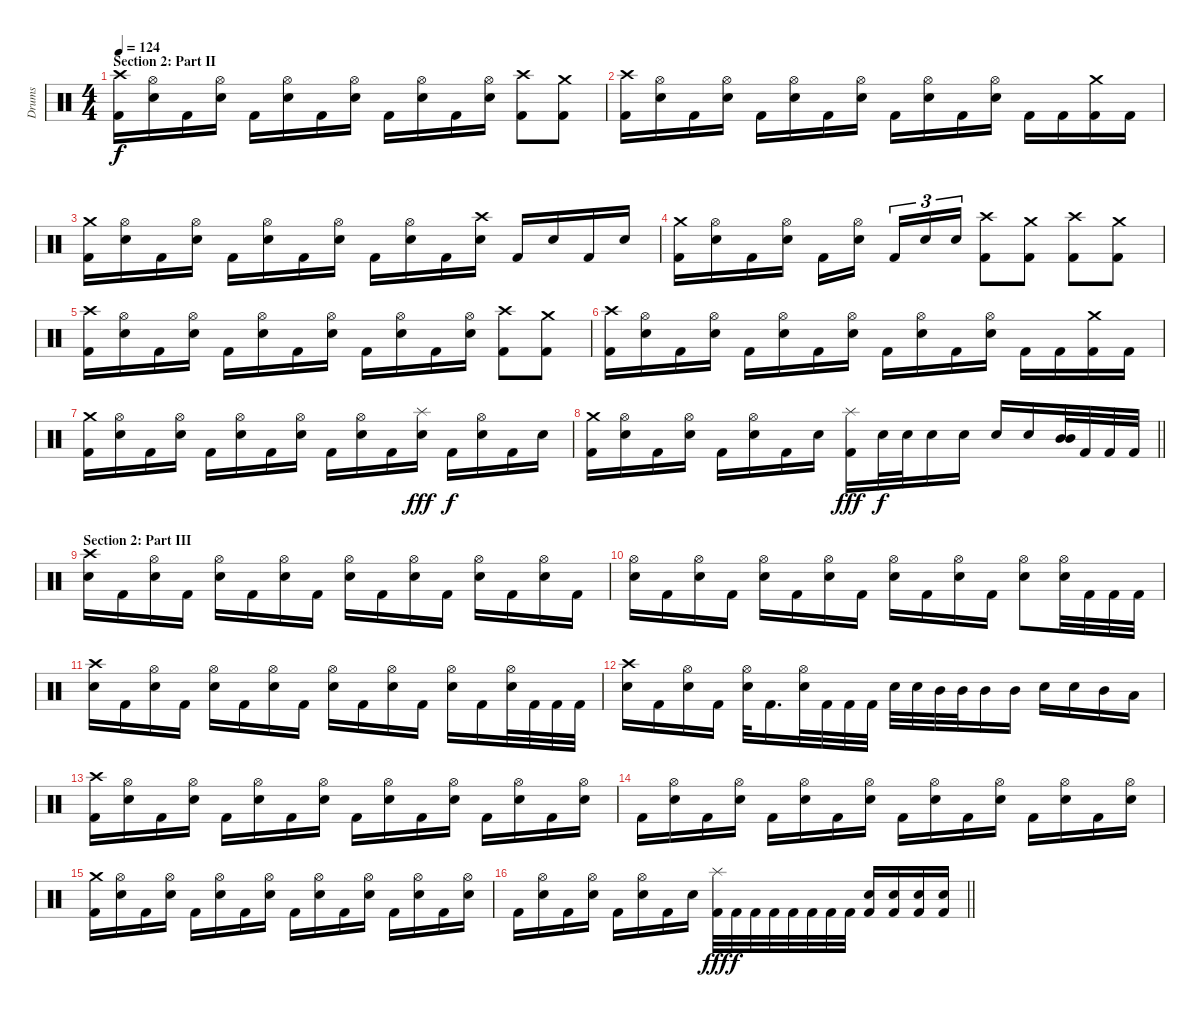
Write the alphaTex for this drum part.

\track ("Drums" "Drums") {instrument percussion}
\staff {score}
\articulation defaults
\ts (4 4)
\section ("" "Section 2: Part II")
\tempo 124
\clef neutral
\ks c
("Crash high (hit)" "Kick (hit) 2").16{dy f} ("Hi-Hat (open)" "Electric Snare (hit)").16 "Kick (hit) 2".16 ("Hi-Hat (open)" "Electric Snare (hit)").16 "Kick (hit) 2".16 ("Hi-Hat (open)" "Electric Snare (hit)").16 "Kick (hit) 2".16 ("Hi-Hat (open)" "Electric Snare (hit)").16 "Kick (hit) 2".16 ("Hi-Hat (open)" "Electric Snare (hit)").16 "Kick (hit) 2".16 ("Hi-Hat (open)" "Electric Snare (hit)").16 ("Crash high (hit)" "Kick (hit) 2").8 ("Crash medium (hit)" "Kick (hit) 2").8 |
("Crash high (hit)" "Kick (hit) 2").16 ("Hi-Hat (open)" "Electric Snare (hit)").16 "Kick (hit) 2".16 ("Hi-Hat (open)" "Electric Snare (hit)").16 "Kick (hit) 2".16 ("Hi-Hat (open)" "Electric Snare (hit)").16 "Kick (hit) 2".16 ("Hi-Hat (open)" "Electric Snare (hit)").16 "Kick (hit) 2".16 ("Hi-Hat (open)" "Electric Snare (hit)").16 "Kick (hit) 2".16 ("Hi-Hat (open)" "Electric Snare (hit)").16 "Kick (hit) 2".16 "Kick (hit) 2".16 ("Crash medium (hit)" "Kick (hit) 2").16 "Kick (hit) 2".16 |
("Crash medium (hit)" "Kick (hit) 2").16 ("Hi-Hat (open)" "Electric Snare (hit)").16 "Kick (hit) 2".16 ("Hi-Hat (open)" "Electric Snare (hit)").16 "Kick (hit) 2".16 ("Hi-Hat (open)" "Electric Snare (hit)").16 "Kick (hit) 2".16 ("Hi-Hat (open)" "Electric Snare (hit)").16 "Kick (hit) 2".16 ("Hi-Hat (open)" "Electric Snare (hit)").16 "Kick (hit) 2".16 ("Crash high (hit)" "Electric Snare (hit)").16 "Kick (hit) 2".16 "Electric Snare (hit)".16 "Kick (hit) 2".16 "Electric Snare (hit)".16 |
("Crash medium (hit)" "Kick (hit) 2").16 ("Hi-Hat (open)" "Electric Snare (hit)").16 "Kick (hit) 2".16 ("Hi-Hat (open)" "Electric Snare (hit)").16 "Kick (hit) 2".16 ("Hi-Hat (open)" "Electric Snare (hit)").16{beam splitsecondary} "Kick (hit) 2".16{tu (3 2)} "Electric Snare (hit)".16{tu (3 2)} "Electric Snare (hit)".16{tu (3 2)} ("Crash high (hit)" "Kick (hit) 2").8 ("Crash medium (hit)" "Kick (hit) 2").8 ("Crash high (hit)" "Kick (hit) 2").8 ("Crash medium (hit)" "Kick (hit) 2").8 |
("Crash high (hit)" "Kick (hit) 2").16 ("Hi-Hat (open)" "Electric Snare (hit)").16 "Kick (hit) 2".16 ("Hi-Hat (open)" "Electric Snare (hit)").16 "Kick (hit) 2".16 ("Hi-Hat (open)" "Electric Snare (hit)").16 "Kick (hit) 2".16 ("Hi-Hat (open)" "Electric Snare (hit)").16 "Kick (hit) 2".16 ("Hi-Hat (open)" "Electric Snare (hit)").16 "Kick (hit) 2".16 ("Hi-Hat (open)" "Electric Snare (hit)").16 ("Crash high (hit)" "Kick (hit) 2").8 ("Crash medium (hit)" "Kick (hit) 2").8 |
("Crash high (hit)" "Kick (hit) 2").16 ("Hi-Hat (open)" "Electric Snare (hit)").16 "Kick (hit) 2".16 ("Hi-Hat (open)" "Electric Snare (hit)").16 "Kick (hit) 2".16 ("Hi-Hat (open)" "Electric Snare (hit)").16 "Kick (hit) 2".16 ("Hi-Hat (open)" "Electric Snare (hit)").16 "Kick (hit) 2".16 ("Hi-Hat (open)" "Electric Snare (hit)").16 "Kick (hit) 2".16 ("Hi-Hat (open)" "Electric Snare (hit)").16 "Kick (hit) 2".16 "Kick (hit) 2".16 ("Crash medium (hit)" "Kick (hit) 2").16 "Kick (hit) 2".16 |
("Crash medium (hit)" "Kick (hit) 2").16 ("Hi-Hat (open)" "Electric Snare (hit)").16 "Kick (hit) 2".16 ("Hi-Hat (open)" "Electric Snare (hit)").16 "Kick (hit) 2".16 ("Hi-Hat (open)" "Electric Snare (hit)").16 "Kick (hit) 2".16 ("Hi-Hat (open)" "Electric Snare (hit)").16 "Kick (hit) 2".16 ("Hi-Hat (open)" "Electric Snare (hit)").16 "Kick (hit) 2".16 ("Splash (hit)" "Electric Snare (hit)").16{dy fff} "Kick (hit) 2".16{dy f} ("Hi-Hat (open)" "Electric Snare (hit)").16 "Kick (hit) 2".16 "Electric Snare (hit)".16 |
\barLineRight lightlight
("Crash medium (hit)" "Kick (hit) 2").16 ("Hi-Hat (open)" "Electric Snare (hit)").16 "Kick (hit) 2".16 ("Hi-Hat (open)" "Electric Snare (hit)").16 "Kick (hit) 2".16 ("Hi-Hat (open)" "Electric Snare (hit)").16 "Kick (hit) 2".16 "Electric Snare (hit)".16 ("Splash (hit)" "Kick (hit) 2").16{dy fff} "Electric Snare (hit)".32{dy f} "Electric Snare (hit)".32 "Electric Snare (hit)".16 "Electric Snare (hit)".16 "Electric Snare (hit)".16 "Electric Snare (hit)".16 ("Mid Tom (hit)" "Mid Tom (hit)").32{bu 60} "Kick (hit) 2".32 "Kick (hit) 2".32 "Kick (hit) 2".32 |
\section ("" "Section 2: Part III")
("Crash high (hit)" "Electric Snare (hit)").16 "Kick (hit) 2".16 ("Hi-Hat (open)" "Electric Snare (hit)").16 "Kick (hit) 2".16 ("Hi-Hat (open)" "Electric Snare (hit)").16 "Kick (hit) 2".16 ("Hi-Hat (open)" "Electric Snare (hit)").16 "Kick (hit) 2".16 ("Hi-Hat (open)" "Electric Snare (hit)").16 "Kick (hit) 2".16 ("Hi-Hat (open)" "Electric Snare (hit)").16 "Kick (hit) 2".16 ("Hi-Hat (open)" "Electric Snare (hit)").16 "Kick (hit) 2".16 ("Hi-Hat (open)" "Electric Snare (hit)").16 "Kick (hit) 2".16 |
("Hi-Hat (open)" "Electric Snare (hit)").16 "Kick (hit) 2".16 ("Hi-Hat (open)" "Electric Snare (hit)").16 "Kick (hit) 2".16 ("Hi-Hat (open)" "Electric Snare (hit)").16 "Kick (hit) 2".16 ("Hi-Hat (open)" "Electric Snare (hit)").16 "Kick (hit) 2".16 ("Hi-Hat (open)" "Electric Snare (hit)").16 "Kick (hit) 2".16 ("Hi-Hat (open)" "Electric Snare (hit)").16 "Kick (hit) 2".16 ("Hi-Hat (open)" "Electric Snare (hit)").8 ("Hi-Hat (open)" "Electric Snare (hit)").32 "Kick (hit) 2".32 "Kick (hit) 2".32 "Kick (hit) 2".32 |
("Crash high (hit)" "Electric Snare (hit)").16 "Kick (hit) 2".16 ("Hi-Hat (open)" "Electric Snare (hit)").16 "Kick (hit) 2".16 ("Hi-Hat (open)" "Electric Snare (hit)").16 "Kick (hit) 2".16 ("Hi-Hat (open)" "Electric Snare (hit)").16 "Kick (hit) 2".16 ("Hi-Hat (open)" "Electric Snare (hit)").16 "Kick (hit) 2".16 ("Hi-Hat (open)" "Electric Snare (hit)").16 "Kick (hit) 2".16 ("Hi-Hat (open)" "Electric Snare (hit)").16 "Kick (hit) 2".16 ("Hi-Hat (open)" "Electric Snare (hit)").32 "Kick (hit) 2".32 "Kick (hit) 2".32 "Kick (hit) 2".32 |
("Crash high (hit)" "Electric Snare (hit)").16 "Kick (hit) 2".16 ("Hi-Hat (open)" "Electric Snare (hit)").16 "Kick (hit) 2".16 ("Hi-Hat (open)" "Electric Snare (hit)").32 "Kick (hit) 2".16{d} ("Hi-Hat (open)" "Electric Snare (hit)").32 "Kick (hit) 2".32 "Kick (hit) 2".32 "Kick (hit) 2".32 "Electric Snare (hit)".32 "Electric Snare (hit)".32 "Mid Tom (hit)".32 "Mid Tom (hit)".32 "Mid Tom (hit)".16 "Mid Tom (hit)".16 "Electric Snare (hit)".16 "Electric Snare (hit)".16 "Mid Tom (hit)".16 "Low Tom (hit)".16 |
("Crash high (hit)" "Kick (hit) 2").16 ("Hi-Hat (open)" "Electric Snare (hit)").16 "Kick (hit) 2".16 ("Hi-Hat (open)" "Electric Snare (hit)").16 "Kick (hit) 2".16 ("Hi-Hat (open)" "Electric Snare (hit)").16 "Kick (hit) 2".16 ("Hi-Hat (open)" "Electric Snare (hit)").16 "Kick (hit) 2".16 ("Hi-Hat (open)" "Electric Snare (hit)").16 "Kick (hit) 2".16 ("Hi-Hat (open)" "Electric Snare (hit)").16 "Kick (hit) 2".16 ("Hi-Hat (open)" "Electric Snare (hit)").16 "Kick (hit) 2".16 ("Hi-Hat (open)" "Electric Snare (hit)").16 |
"Kick (hit) 2".16 ("Hi-Hat (open)" "Electric Snare (hit)").16 "Kick (hit) 2".16 ("Hi-Hat (open)" "Electric Snare (hit)").16 "Kick (hit) 2".16 ("Hi-Hat (open)" "Electric Snare (hit)").16 "Kick (hit) 2".16 ("Hi-Hat (open)" "Electric Snare (hit)").16 "Kick (hit) 2".16 ("Hi-Hat (open)" "Electric Snare (hit)").16 "Kick (hit) 2".16 ("Hi-Hat (open)" "Electric Snare (hit)").16 "Kick (hit) 2".16 ("Hi-Hat (open)" "Electric Snare (hit)").16 "Kick (hit) 2".16 ("Hi-Hat (open)" "Electric Snare (hit)").16 |
("Crash medium (hit)" "Kick (hit) 2").16 ("Hi-Hat (open)" "Electric Snare (hit)").16 "Kick (hit) 2".16 ("Hi-Hat (open)" "Electric Snare (hit)").16 "Kick (hit) 2".16 ("Hi-Hat (open)" "Electric Snare (hit)").16 "Kick (hit) 2".16 ("Hi-Hat (open)" "Electric Snare (hit)").16 "Kick (hit) 2".16 ("Hi-Hat (open)" "Electric Snare (hit)").16 "Kick (hit) 2".16 ("Hi-Hat (open)" "Electric Snare (hit)").16 "Kick (hit) 2".16 ("Hi-Hat (open)" "Electric Snare (hit)").16 "Kick (hit) 2".16 ("Hi-Hat (open)" "Electric Snare (hit)").16 |
\barLineRight lightlight "Kick (hit) 2".16
("Hi-Hat (open)" "Electric Snare (hit)").16 "Kick (hit) 2".16 ("Hi-Hat (open)" "Electric Snare (hit)").16 "Kick (hit) 2".16 ("Hi-Hat (open)" "Electric Snare (hit)").16 "Kick (hit) 2".16 "Electric Snare (hit)".16 ("Splash (hit)" "Kick (hit) 2").32{dy fff} "Kick (hit) 2".32{dy f} "Kick (hit) 2".32 "Kick (hit) 2".32 "Kick (hit) 2".32 "Kick (hit) 2".32 "Kick (hit) 2".32 "Kick (hit) 2".32 ("Electric Snare (hit)" "Kick (hit) 2").16 ("Electric Snare (hit)" "Kick (hit) 2").16 ("Electric Snare (hit)" "Kick (hit) 2").16 ("Electric Snare (hit)" "Kick (hit) 2").16
